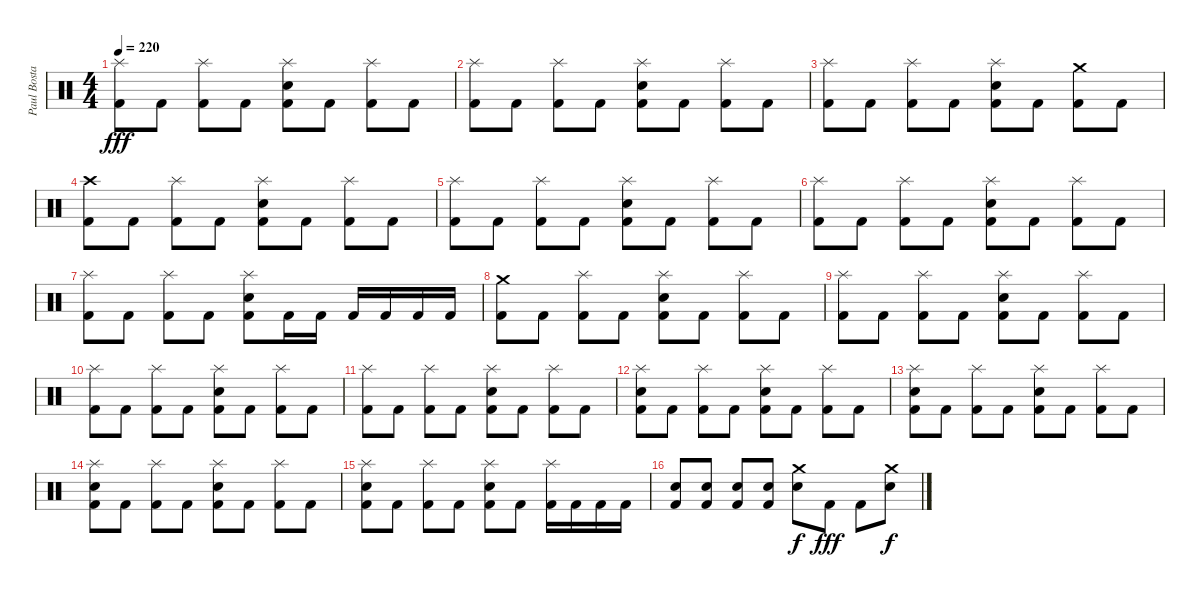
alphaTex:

\track ("Paul Bostaph" "Paul Bosta") {instrument percussion}
\staff {score}
\articulation defaults
\ts (4 4)
\tempo 220
\clef neutral
\ks c
("Splash (hit)" "Kick (hit) 2").8{dy fff} "Kick (hit) 2".8 ("Splash (hit)" "Kick (hit) 2").8 "Kick (hit) 2".8 ("Splash (hit)" "Snare (hit) 2" "Kick (hit) 2").8 "Kick (hit) 2".8 ("Splash (hit)" "Kick (hit) 2").8 "Kick (hit) 2".8 |
("Splash (hit)" "Kick (hit) 2").8 "Kick (hit) 2".8 ("Splash (hit)" "Kick (hit) 2").8 "Kick (hit) 2".8 ("Splash (hit)" "Snare (hit) 2" "Kick (hit) 2").8 "Kick (hit) 2".8 ("Splash (hit)" "Kick (hit) 2").8 "Kick (hit) 2".8 |
("Splash (hit)" "Kick (hit) 2").8 "Kick (hit) 2".8 ("Splash (hit)" "Kick (hit) 2").8 "Kick (hit) 2".8 ("Splash (hit)" "Snare (hit) 2" "Kick (hit) 2").8 "Kick (hit) 2".8 ("Crash medium (hit)" "Kick (hit) 2").8 "Kick (hit) 2".8 |
("Crash high (hit)" "Kick (hit) 2").8 "Kick (hit) 2".8 ("Splash (hit)" "Kick (hit) 2").8 "Kick (hit) 2".8 ("Splash (hit)" "Snare (hit) 2" "Kick (hit) 2").8 "Kick (hit) 2".8 ("Splash (hit)" "Kick (hit) 2").8 "Kick (hit) 2".8 |
("Splash (hit)" "Kick (hit) 2").8 "Kick (hit) 2".8 ("Splash (hit)" "Kick (hit) 2").8 "Kick (hit) 2".8 ("Splash (hit)" "Snare (hit) 2" "Kick (hit) 2").8 "Kick (hit) 2".8 ("Splash (hit)" "Kick (hit) 2").8 "Kick (hit) 2".8 |
("Splash (hit)" "Kick (hit) 2").8 "Kick (hit) 2".8 ("Splash (hit)" "Kick (hit) 2").8 "Kick (hit) 2".8 ("Splash (hit)" "Snare (hit) 2" "Kick (hit) 2").8 "Kick (hit) 2".8 ("Splash (hit)" "Kick (hit) 2").8 "Kick (hit) 2".8 |
("Splash (hit)" "Kick (hit) 2").8 "Kick (hit) 2".8 ("Splash (hit)" "Kick (hit) 2").8 "Kick (hit) 2".8 ("Splash (hit)" "Snare (hit) 2" "Kick (hit) 2").8 "Kick (hit) 2".16 "Kick (hit) 2".16 "Kick (hit) 2".16 "Kick (hit) 2".16 "Kick (hit) 2".16 "Kick (hit) 2".16 |
("Crash medium (hit)" "Kick (hit) 2").8 "Kick (hit) 2".8 ("Splash (hit)" "Kick (hit) 2").8 "Kick (hit) 2".8 ("Splash (hit)" "Snare (hit) 2" "Kick (hit) 2").8 "Kick (hit) 2".8 ("Splash (hit)" "Kick (hit) 2").8 "Kick (hit) 2".8 |
("Splash (hit)" "Kick (hit) 2").8 "Kick (hit) 2".8 ("Splash (hit)" "Kick (hit) 2").8 "Kick (hit) 2".8 ("Splash (hit)" "Snare (hit) 2" "Kick (hit) 2").8 "Kick (hit) 2".8 ("Splash (hit)" "Kick (hit) 2").8 "Kick (hit) 2".8 |
("Splash (hit)" "Kick (hit) 2").8 "Kick (hit) 2".8 ("Splash (hit)" "Kick (hit) 2").8 "Kick (hit) 2".8 ("Splash (hit)" "Snare (hit) 2" "Kick (hit) 2").8 "Kick (hit) 2".8 ("Splash (hit)" "Kick (hit) 2").8 "Kick (hit) 2".8 |
("Splash (hit)" "Kick (hit) 2").8 "Kick (hit) 2".8 ("Splash (hit)" "Kick (hit) 2").8 "Kick (hit) 2".8 ("Splash (hit)" "Snare (hit) 2" "Kick (hit) 2").8 "Kick (hit) 2".8 ("Splash (hit)" "Kick (hit) 2").8 "Kick (hit) 2".8 |
("Splash (hit)" "Snare (hit) 2" "Kick (hit) 2").8 "Kick (hit) 2".8 ("Splash (hit)" "Kick (hit) 2").8 "Kick (hit) 2".8 ("Splash (hit)" "Snare (hit) 2" "Kick (hit) 2").8 "Kick (hit) 2".8 ("Splash (hit)" "Kick (hit) 2").8 "Kick (hit) 2".8 |
("Splash (hit)" "Snare (hit) 2" "Kick (hit) 2").8 "Kick (hit) 2".8 ("Splash (hit)" "Kick (hit) 2").8 "Kick (hit) 2".8 ("Splash (hit)" "Snare (hit) 2" "Kick (hit) 2").8 "Kick (hit) 2".8 ("Splash (hit)" "Kick (hit) 2").8 "Kick (hit) 2".8 |
("Splash (hit)" "Snare (hit) 2" "Kick (hit) 2").8 "Kick (hit) 2".8 ("Splash (hit)" "Kick (hit) 2").8 "Kick (hit) 2".8 ("Splash (hit)" "Snare (hit) 2" "Kick (hit) 2").8 "Kick (hit) 2".8 ("Splash (hit)" "Kick (hit) 2").8 "Kick (hit) 2".8 |
("Splash (hit)" "Snare (hit) 2" "Kick (hit) 2").8 "Kick (hit) 2".8 ("Splash (hit)" "Kick (hit) 2").8 "Kick (hit) 2".8 ("Splash (hit)" "Snare (hit) 2" "Kick (hit) 2").8 "Kick (hit) 2".8 ("Splash (hit)" "Kick (hit) 2").16 "Kick (hit) 2".16 "Kick (hit) 2".16 "Kick (hit) 2".16 |
("Snare (hit) 2" "Kick (hit) 2").8 ("Snare (hit) 2" "Kick (hit) 2").8 ("Snare (hit) 2" "Kick (hit) 2").8 ("Snare (hit) 2" "Kick (hit) 2").8 ("Crash medium (hit)" "Snare (hit) 2").8{dy f} "Kick (hit) 2".8{dy fff} "Kick (hit) 2".8 ("Crash medium (hit)" "Snare (hit) 2").8{dy f}
